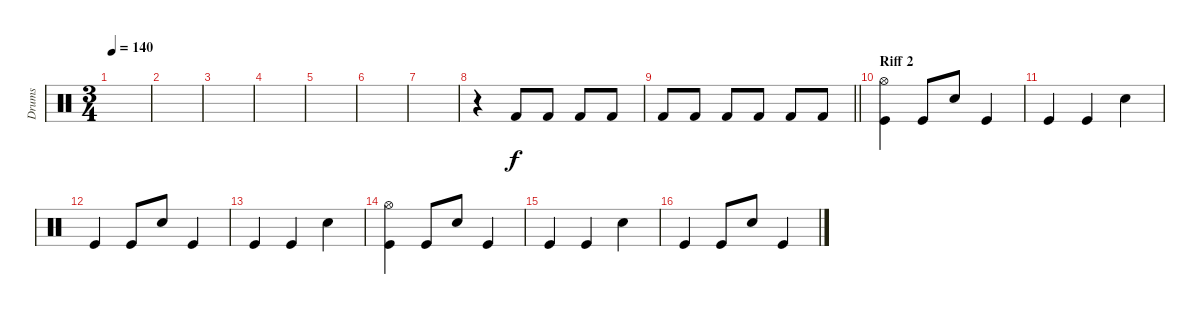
\track ("Drums" "Drums") {instrument percussion}
\staff {score}
\articulation defaults
\ts (3 4)
\tempo 140
\clef neutral
\ks c
|
|
|
|
|
|
|
r.4 "Kick (hit) 2".8 "Kick (hit) 2".8 "Kick (hit) 2".8 "Kick (hit) 2".8 |
\barLineRight lightlight "Kick (hit) 2".8 "Kick (hit) 2".8 "Kick (hit) 2".8 "Kick (hit) 2".8 "Kick (hit) 2".8 "Kick (hit) 2".8
|
\section ("" "Riff 2")
("Kick (hit)" "Hi-Hat (open)").4 "Kick (hit)".8 "Snare (hit) 2".8 "Kick (hit)".4 |
"Kick (hit)".4 "Kick (hit)".4 "Snare (hit) 2".4 |
"Kick (hit)".4 "Kick (hit)".8 "Snare (hit) 2".8 "Kick (hit)".4 |
"Kick (hit)".4 "Kick (hit)".4 "Snare (hit) 2".4 |
("Kick (hit)" "Hi-Hat (open)").4 "Kick (hit)".8 "Snare (hit) 2".8 "Kick (hit)".4 |
"Kick (hit)".4 "Kick (hit)".4 "Snare (hit) 2".4 |
"Kick (hit)".4 "Kick (hit)".8 "Snare (hit) 2".8 "Kick (hit)".4
